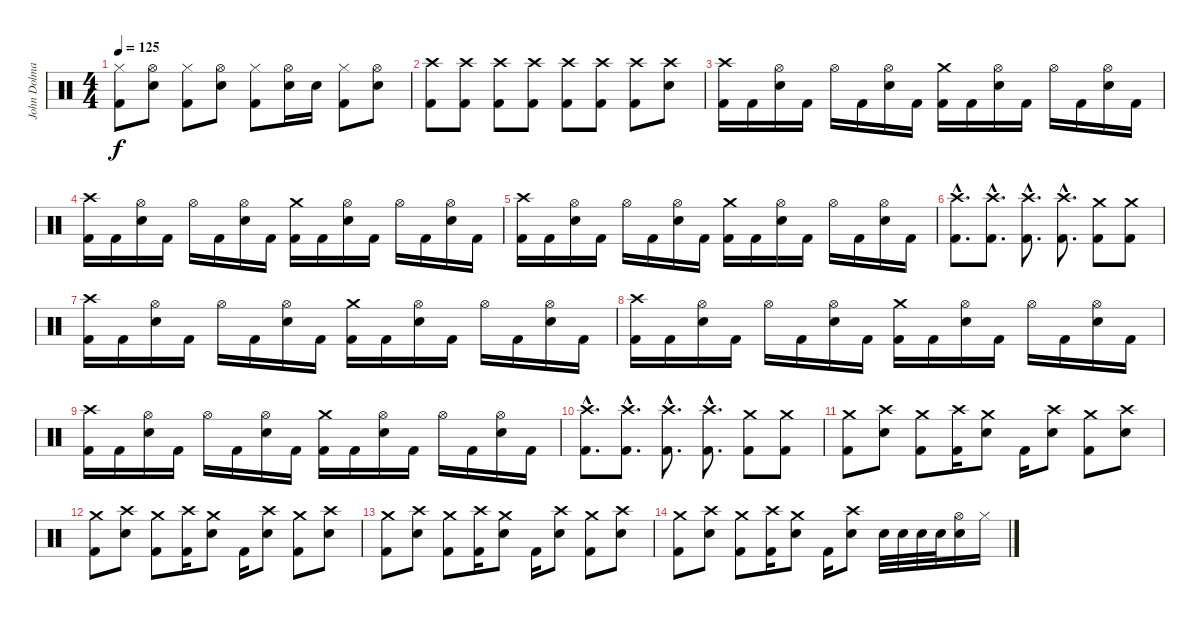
\track ("John Dolmayan" "John Dolma") {instrument percussion}
\staff {score}
\articulation defaults
\ts (4 4)
\tempo 125
\clef neutral
\ks c
("Hi-Hat (closed)" "Kick (hit) 2").8{dy f} ("Hi-Hat (open)" "Electric Snare (hit)").8 ("Hi-Hat (closed)" "Kick (hit) 2").8 ("Hi-Hat (open)" "Electric Snare (hit)").8 ("Hi-Hat (closed)" "Kick (hit) 2").8 ("Hi-Hat (open)" "Electric Snare (hit)").16 "Electric Snare (hit)".16 ("Hi-Hat (closed)" "Kick (hit) 2").8 ("Hi-Hat (open)" "Electric Snare (hit)").8 |
("Crash high (hit)" "Kick (hit) 2").8 ("Crash high (hit)" "Kick (hit) 2").8 ("Crash high (hit)" "Kick (hit) 2").8 ("Crash high (hit)" "Kick (hit) 2").8 ("Crash high (hit)" "Kick (hit) 2").8 ("Crash high (hit)" "Kick (hit) 2").8 ("Crash high (hit)" "Kick (hit) 2").8 ("Crash high (hit)" "Electric Snare (hit)").8 |
("Crash high (hit)" "Kick (hit) 2").16 "Kick (hit) 2".16 ("Hi-Hat (open)" "Electric Snare (hit)").16 "Kick (hit) 2".16 "Hi-Hat (open)".16 "Kick (hit) 2".16 ("Hi-Hat (open)" "Electric Snare (hit)").16 "Kick (hit) 2".16 ("Crash medium (hit)" "Kick (hit) 2").16 "Kick (hit) 2".16 ("Hi-Hat (open)" "Electric Snare (hit)").16 "Kick (hit) 2".16 "Hi-Hat (open)".16 "Kick (hit) 2".16 ("Hi-Hat (open)" "Electric Snare (hit)").16 "Kick (hit) 2".16 |
("Crash high (hit)" "Kick (hit) 2").16 "Kick (hit) 2".16 ("Hi-Hat (open)" "Electric Snare (hit)").16 "Kick (hit) 2".16 "Hi-Hat (open)".16 "Kick (hit) 2".16 ("Hi-Hat (open)" "Electric Snare (hit)").16 "Kick (hit) 2".16 ("Crash medium (hit)" "Kick (hit) 2").16 "Kick (hit) 2".16 ("Hi-Hat (open)" "Electric Snare (hit)").16 "Kick (hit) 2".16 "Hi-Hat (open)".16 "Kick (hit) 2".16 ("Hi-Hat (open)" "Electric Snare (hit)").16 "Kick (hit) 2".16 |
("Crash high (hit)" "Kick (hit) 2").16 "Kick (hit) 2".16 ("Hi-Hat (open)" "Electric Snare (hit)").16 "Kick (hit) 2".16 "Hi-Hat (open)".16 "Kick (hit) 2".16 ("Hi-Hat (open)" "Electric Snare (hit)").16 "Kick (hit) 2".16 ("Crash medium (hit)" "Kick (hit) 2").16 "Kick (hit) 2".16 ("Hi-Hat (open)" "Electric Snare (hit)").16 "Kick (hit) 2".16 "Hi-Hat (open)".16 "Kick (hit) 2".16 ("Hi-Hat (open)" "Electric Snare (hit)").16 "Kick (hit) 2".16 |
("Crash high (hit)"{hac} "Kick (hit) 2"{hac}).8{d} ("Crash high (hit)"{hac} "Kick (hit) 2"{hac}).8{d} ("Crash high (hit)"{hac} "Kick (hit) 2"{hac}).8{d} ("Crash high (hit)"{hac} "Kick (hit) 2"{hac}).8{d} ("Crash medium (hit)" "Kick (hit) 2").8 ("Crash medium (hit)" "Kick (hit) 2").8 |
("Crash high (hit)" "Kick (hit) 2").16 "Kick (hit) 2".16 ("Hi-Hat (open)" "Electric Snare (hit)").16 "Kick (hit) 2".16 "Hi-Hat (open)".16 "Kick (hit) 2".16 ("Hi-Hat (open)" "Electric Snare (hit)").16 "Kick (hit) 2".16 ("Crash medium (hit)" "Kick (hit) 2").16 "Kick (hit) 2".16 ("Hi-Hat (open)" "Electric Snare (hit)").16 "Kick (hit) 2".16 "Hi-Hat (open)".16 "Kick (hit) 2".16 ("Hi-Hat (open)" "Electric Snare (hit)").16 "Kick (hit) 2".16 |
("Crash high (hit)" "Kick (hit) 2").16 "Kick (hit) 2".16 ("Hi-Hat (open)" "Electric Snare (hit)").16 "Kick (hit) 2".16 "Hi-Hat (open)".16 "Kick (hit) 2".16 ("Hi-Hat (open)" "Electric Snare (hit)").16 "Kick (hit) 2".16 ("Crash medium (hit)" "Kick (hit) 2").16 "Kick (hit) 2".16 ("Hi-Hat (open)" "Electric Snare (hit)").16 "Kick (hit) 2".16 "Hi-Hat (open)".16 "Kick (hit) 2".16 ("Hi-Hat (open)" "Electric Snare (hit)").16 "Kick (hit) 2".16 |
("Crash high (hit)" "Kick (hit) 2").16 "Kick (hit) 2".16 ("Hi-Hat (open)" "Electric Snare (hit)").16 "Kick (hit) 2".16 "Hi-Hat (open)".16 "Kick (hit) 2".16 ("Hi-Hat (open)" "Electric Snare (hit)").16 "Kick (hit) 2".16 ("Crash medium (hit)" "Kick (hit) 2").16 "Kick (hit) 2".16 ("Hi-Hat (open)" "Electric Snare (hit)").16 "Kick (hit) 2".16 "Hi-Hat (open)".16 "Kick (hit) 2".16 ("Hi-Hat (open)" "Electric Snare (hit)").16 "Kick (hit) 2".16 |
("Crash high (hit)"{hac} "Kick (hit) 2"{hac}).8{d} ("Crash high (hit)"{hac} "Kick (hit) 2"{hac}).8{d} ("Crash high (hit)"{hac} "Kick (hit) 2"{hac}).8{d} ("Crash high (hit)"{hac} "Kick (hit) 2"{hac}).8{d} ("Crash medium (hit)" "Kick (hit) 2").8 ("Crash medium (hit)" "Kick (hit) 2").8 |
("Crash medium (hit)" "Kick (hit) 2").8 ("Crash high (hit)" "Electric Snare (hit)").8 ("Crash medium (hit)" "Kick (hit) 2").8 ("Crash high (hit)" "Kick (hit) 2").16 ("Crash medium (hit)" "Electric Snare (hit)").8 "Kick (hit) 2".16 ("Crash high (hit)" "Electric Snare (hit)").8 ("Crash medium (hit)" "Kick (hit) 2").8 ("Crash high (hit)" "Electric Snare (hit)").8 |
("Crash medium (hit)" "Kick (hit) 2").8 ("Crash high (hit)" "Electric Snare (hit)").8 ("Crash medium (hit)" "Kick (hit) 2").8 ("Crash high (hit)" "Kick (hit) 2").16 ("Crash medium (hit)" "Electric Snare (hit)").8 "Kick (hit) 2".16 ("Crash high (hit)" "Electric Snare (hit)").8 ("Crash medium (hit)" "Kick (hit) 2").8 ("Crash high (hit)" "Electric Snare (hit)").8 |
("Crash medium (hit)" "Kick (hit) 2").8 ("Crash high (hit)" "Electric Snare (hit)").8 ("Crash medium (hit)" "Kick (hit) 2").8 ("Crash high (hit)" "Kick (hit) 2").16 ("Crash medium (hit)" "Electric Snare (hit)").8 "Kick (hit) 2".16 ("Crash high (hit)" "Electric Snare (hit)").8 ("Crash medium (hit)" "Kick (hit) 2").8 ("Crash high (hit)" "Electric Snare (hit)").8 |
("Crash medium (hit)" "Kick (hit) 2").8 ("Crash high (hit)" "Electric Snare (hit)").8 ("Crash medium (hit)" "Kick (hit) 2").8 ("Crash high (hit)" "Kick (hit) 2").16 ("Crash medium (hit)" "Electric Snare (hit)").8 "Kick (hit) 2".16 ("Crash high (hit)" "Electric Snare (hit)").8 "Electric Snare (hit)".32 "Electric Snare (hit)".32 "Electric Snare (hit)".32 "Electric Snare (hit)".32 ("Hi-Hat (open)" "Electric Snare (hit)").16 "Hi-Hat (closed)".16
